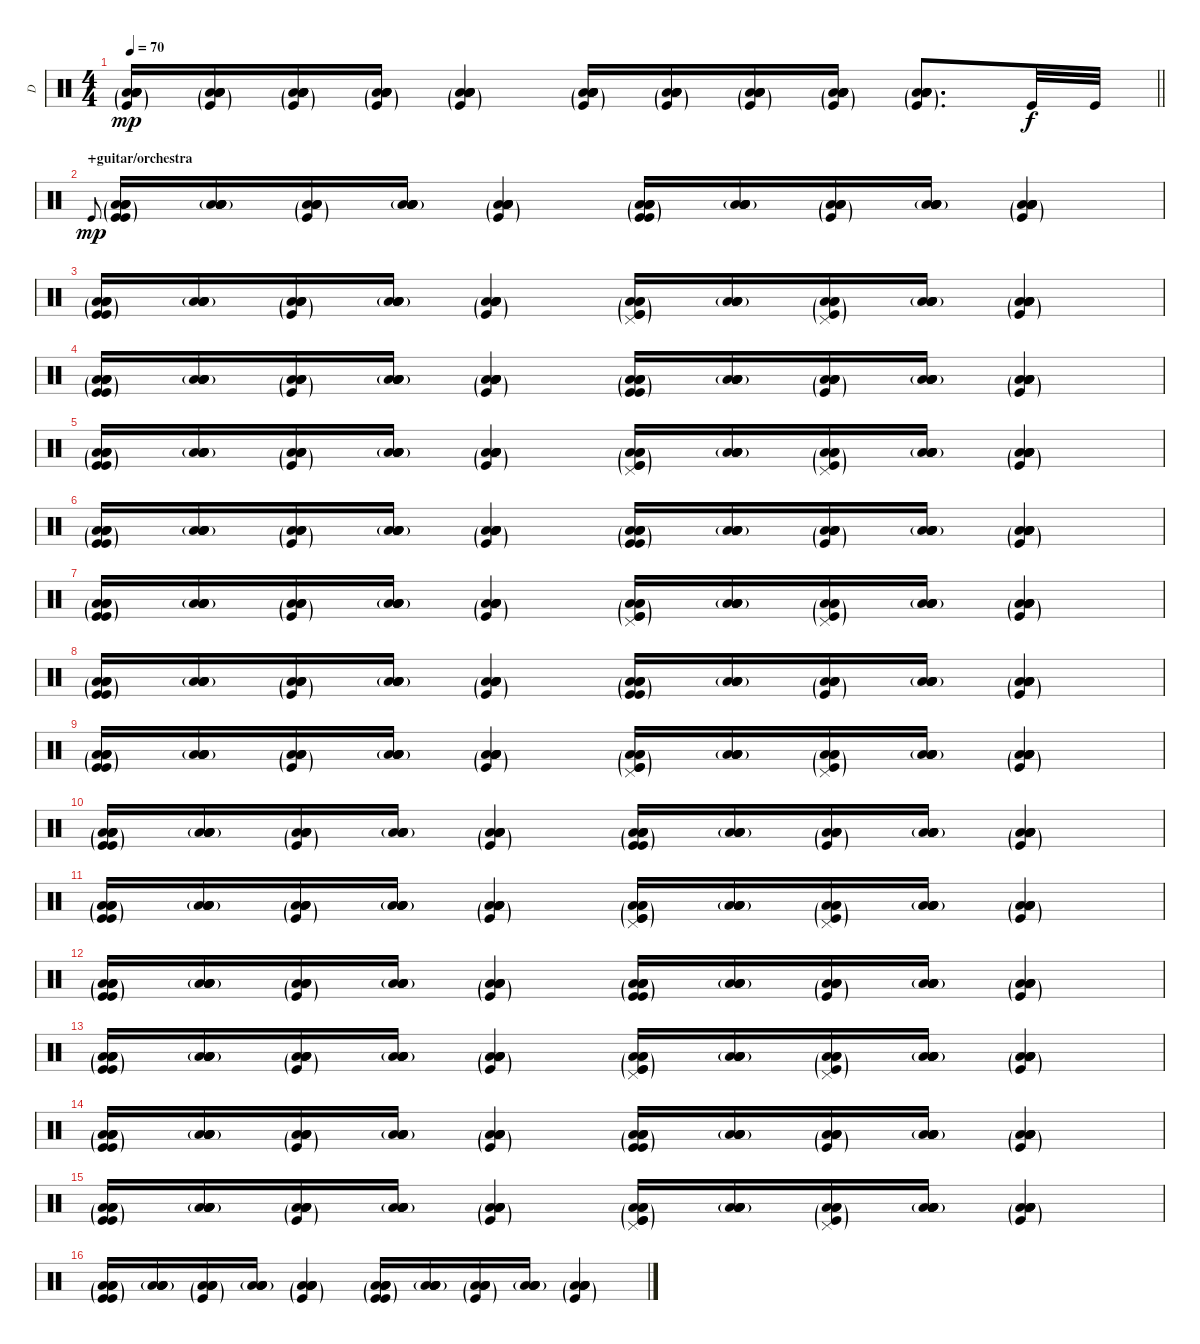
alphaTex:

\track ("D" "D") {instrument percussion}
\staff {score}
\articulation defaults
\ts (4 4)
\tempo 70
\clef neutral
\barLineRight lightlight
\ks c
("Low Floor Tom (hit)"{g} "Low Floor Tom (hit)"{g} "Low Floor Tom (hit)"{g} "Low Floor Tom (hit)"{g} "Low Floor Tom (hit)"{g} "Kick (hit)"{g}).16{dy mp} ("Low Floor Tom (hit)"{g} "Low Floor Tom (hit)"{g} "Low Floor Tom (hit)"{g} "Low Floor Tom (hit)"{g} "Low Floor Tom (hit)"{g} "Kick (hit)"{g}).16 ("Low Floor Tom (hit)"{g} "Low Floor Tom (hit)"{g} "Low Floor Tom (hit)"{g} "Low Floor Tom (hit)"{g} "Low Floor Tom (hit)"{g} "Kick (hit)"{g}).16 ("Low Floor Tom (hit)"{g} "Low Floor Tom (hit)"{g} "Low Floor Tom (hit)"{g} "Low Floor Tom (hit)"{g} "Low Floor Tom (hit)"{g} "Kick (hit)"{g}).16 ("Low Floor Tom (hit)"{g} "Low Floor Tom (hit)"{g} "Low Floor Tom (hit)"{g} "Low Floor Tom (hit)"{g} "Low Floor Tom (hit)"{g} "Kick (hit)"{g}).4 ("Low Floor Tom (hit)"{g} "Low Floor Tom (hit)"{g} "Low Floor Tom (hit)"{g} "Low Floor Tom (hit)"{g} "Low Floor Tom (hit)"{g} "Kick (hit)"{g}).16 ("Low Floor Tom (hit)"{g} "Low Floor Tom (hit)"{g} "Low Floor Tom (hit)"{g} "Low Floor Tom (hit)"{g} "Low Floor Tom (hit)"{g} "Kick (hit)"{g}).16 ("Low Floor Tom (hit)"{g} "Low Floor Tom (hit)"{g} "Low Floor Tom (hit)"{g} "Low Floor Tom (hit)"{g} "Low Floor Tom (hit)"{g} "Kick (hit)"{g}).16 ("Low Floor Tom (hit)"{g} "Low Floor Tom (hit)"{g} "Low Floor Tom (hit)"{g} "Low Floor Tom (hit)"{g} "Low Floor Tom (hit)"{g} "Kick (hit)"{g}).16 ("Low Floor Tom (hit)"{g} "Low Floor Tom (hit)"{g} "Low Floor Tom (hit)"{g} "Low Floor Tom (hit)"{g} "Low Floor Tom (hit)"{g} "Kick (hit)"{g}).8{d} "Kick (hit)".32{dy f} "Kick (hit)".32 |
\section ("" "+guitar/orchestra")
"Kick (hit)".8{gr onbeat dy mp} ("Low Floor Tom (hit)"{g} "Low Floor Tom (hit)"{g} "Low Floor Tom (hit)"{g} "Low Floor Tom (hit)"{g} "Kick (hit)"{g} "Kick (hit)"{g}).16 ("Low Floor Tom (hit)"{g} "Low Floor Tom (hit)"{g} "Low Floor Tom (hit)"{g} "Low Floor Tom (hit)"{g} "Low Floor Tom (hit)"{g}).16 ("Low Floor Tom (hit)"{g} "Low Floor Tom (hit)"{g} "Low Floor Tom (hit)"{g} "Low Floor Tom (hit)"{g} "Kick (hit)"{g}).16 ("Low Floor Tom (hit)"{g} "Low Floor Tom (hit)"{g} "Low Floor Tom (hit)"{g} "Low Floor Tom (hit)"{g} "Low Floor Tom (hit)"{g}).16 ("Low Floor Tom (hit)"{g} "Low Floor Tom (hit)"{g} "Low Floor Tom (hit)"{g} "Low Floor Tom (hit)"{g} "Low Floor Tom (hit)"{g} "Kick (hit)"{g}).4 ("Low Floor Tom (hit)"{g} "Low Floor Tom (hit)"{g} "Low Floor Tom (hit)"{g} "Low Floor Tom (hit)"{g} "Kick (hit)"{g} "Kick (hit)"{g}).16 ("Low Floor Tom (hit)"{g} "Low Floor Tom (hit)"{g} "Low Floor Tom (hit)"{g} "Low Floor Tom (hit)"{g} "Low Floor Tom (hit)"{g}).16 ("Low Floor Tom (hit)"{g} "Low Floor Tom (hit)"{g} "Low Floor Tom (hit)"{g} "Low Floor Tom (hit)"{g} "Kick (hit)"{g}).16 ("Low Floor Tom (hit)"{g} "Low Floor Tom (hit)"{g} "Low Floor Tom (hit)"{g} "Low Floor Tom (hit)"{g} "Low Floor Tom (hit)"{g}).16 ("Low Floor Tom (hit)"{g} "Low Floor Tom (hit)"{g} "Low Floor Tom (hit)"{g} "Low Floor Tom (hit)"{g} "Low Floor Tom (hit)"{g} "Kick (hit)"{g}).4 |
("Low Floor Tom (hit)"{g} "Low Floor Tom (hit)"{g} "Low Floor Tom (hit)"{g} "Low Floor Tom (hit)"{g} "Kick (hit)"{g} "Kick (hit)"{g}).16 ("Low Floor Tom (hit)"{g} "Low Floor Tom (hit)"{g} "Low Floor Tom (hit)"{g} "Low Floor Tom (hit)"{g} "Low Floor Tom (hit)"{g}).16 ("Low Floor Tom (hit)"{g} "Low Floor Tom (hit)"{g} "Low Floor Tom (hit)"{g} "Low Floor Tom (hit)"{g} "Kick (hit)"{g}).16 ("Low Floor Tom (hit)"{g} "Low Floor Tom (hit)"{g} "Low Floor Tom (hit)"{g} "Low Floor Tom (hit)"{g} "Low Floor Tom (hit)"{g}).16 ("Low Floor Tom (hit)"{g} "Low Floor Tom (hit)"{g} "Low Floor Tom (hit)"{g} "Low Floor Tom (hit)"{g} "Low Floor Tom (hit)"{g} "Kick (hit)"{g}).4 ("Pedal Hi-Hat (hit)"{g} "Low Floor Tom (hit)"{g} "Low Floor Tom (hit)"{g} "Low Floor Tom (hit)"{g} "Kick (hit)"{g} "Kick (hit)"{g}).16 ("Low Floor Tom (hit)"{g} "Low Floor Tom (hit)"{g} "Low Floor Tom (hit)"{g} "Low Floor Tom (hit)"{g} "Low Floor Tom (hit)"{g}).16 ("Pedal Hi-Hat (hit)"{g} "Low Floor Tom (hit)"{g} "Low Floor Tom (hit)"{g} "Low Floor Tom (hit)"{g} "Kick (hit)"{g}).16 ("Low Floor Tom (hit)"{g} "Low Floor Tom (hit)"{g} "Low Floor Tom (hit)"{g} "Low Floor Tom (hit)"{g} "Low Floor Tom (hit)"{g}).16 ("Low Floor Tom (hit)"{g} "Low Floor Tom (hit)"{g} "Low Floor Tom (hit)"{g} "Low Floor Tom (hit)"{g} "Low Floor Tom (hit)"{g} "Kick (hit)"{g}).4 |
("Low Floor Tom (hit)"{g} "Low Floor Tom (hit)"{g} "Low Floor Tom (hit)"{g} "Low Floor Tom (hit)"{g} "Kick (hit)"{g} "Kick (hit)"{g}).16 ("Low Floor Tom (hit)"{g} "Low Floor Tom (hit)"{g} "Low Floor Tom (hit)"{g} "Low Floor Tom (hit)"{g} "Low Floor Tom (hit)"{g}).16 ("Low Floor Tom (hit)"{g} "Low Floor Tom (hit)"{g} "Low Floor Tom (hit)"{g} "Low Floor Tom (hit)"{g} "Kick (hit)"{g}).16 ("Low Floor Tom (hit)"{g} "Low Floor Tom (hit)"{g} "Low Floor Tom (hit)"{g} "Low Floor Tom (hit)"{g} "Low Floor Tom (hit)"{g}).16 ("Low Floor Tom (hit)"{g} "Low Floor Tom (hit)"{g} "Low Floor Tom (hit)"{g} "Low Floor Tom (hit)"{g} "Low Floor Tom (hit)"{g} "Kick (hit)"{g}).4 ("Low Floor Tom (hit)"{g} "Low Floor Tom (hit)"{g} "Low Floor Tom (hit)"{g} "Low Floor Tom (hit)"{g} "Kick (hit)"{g} "Kick (hit)"{g}).16 ("Low Floor Tom (hit)"{g} "Low Floor Tom (hit)"{g} "Low Floor Tom (hit)"{g} "Low Floor Tom (hit)"{g} "Low Floor Tom (hit)"{g}).16 ("Low Floor Tom (hit)"{g} "Low Floor Tom (hit)"{g} "Low Floor Tom (hit)"{g} "Low Floor Tom (hit)"{g} "Kick (hit)"{g}).16 ("Low Floor Tom (hit)"{g} "Low Floor Tom (hit)"{g} "Low Floor Tom (hit)"{g} "Low Floor Tom (hit)"{g} "Low Floor Tom (hit)"{g}).16 ("Low Floor Tom (hit)"{g} "Low Floor Tom (hit)"{g} "Low Floor Tom (hit)"{g} "Low Floor Tom (hit)"{g} "Low Floor Tom (hit)"{g} "Kick (hit)"{g}).4 |
("Low Floor Tom (hit)"{g} "Low Floor Tom (hit)"{g} "Low Floor Tom (hit)"{g} "Low Floor Tom (hit)"{g} "Kick (hit)"{g} "Kick (hit)"{g}).16 ("Low Floor Tom (hit)"{g} "Low Floor Tom (hit)"{g} "Low Floor Tom (hit)"{g} "Low Floor Tom (hit)"{g} "Low Floor Tom (hit)"{g}).16 ("Low Floor Tom (hit)"{g} "Low Floor Tom (hit)"{g} "Low Floor Tom (hit)"{g} "Low Floor Tom (hit)"{g} "Kick (hit)"{g}).16 ("Low Floor Tom (hit)"{g} "Low Floor Tom (hit)"{g} "Low Floor Tom (hit)"{g} "Low Floor Tom (hit)"{g} "Low Floor Tom (hit)"{g}).16 ("Low Floor Tom (hit)"{g} "Low Floor Tom (hit)"{g} "Low Floor Tom (hit)"{g} "Low Floor Tom (hit)"{g} "Low Floor Tom (hit)"{g} "Kick (hit)"{g}).4 ("Pedal Hi-Hat (hit)"{g} "Low Floor Tom (hit)"{g} "Low Floor Tom (hit)"{g} "Low Floor Tom (hit)"{g} "Kick (hit)"{g} "Kick (hit)"{g}).16 ("Low Floor Tom (hit)"{g} "Low Floor Tom (hit)"{g} "Low Floor Tom (hit)"{g} "Low Floor Tom (hit)"{g} "Low Floor Tom (hit)"{g}).16 ("Pedal Hi-Hat (hit)"{g} "Low Floor Tom (hit)"{g} "Low Floor Tom (hit)"{g} "Low Floor Tom (hit)"{g} "Kick (hit)"{g}).16 ("Low Floor Tom (hit)"{g} "Low Floor Tom (hit)"{g} "Low Floor Tom (hit)"{g} "Low Floor Tom (hit)"{g} "Low Floor Tom (hit)"{g}).16 ("Low Floor Tom (hit)"{g} "Low Floor Tom (hit)"{g} "Low Floor Tom (hit)"{g} "Low Floor Tom (hit)"{g} "Low Floor Tom (hit)"{g} "Kick (hit)"{g}).4 |
("Low Floor Tom (hit)"{g} "Low Floor Tom (hit)"{g} "Low Floor Tom (hit)"{g} "Low Floor Tom (hit)"{g} "Kick (hit)"{g} "Kick (hit)"{g}).16 ("Low Floor Tom (hit)"{g} "Low Floor Tom (hit)"{g} "Low Floor Tom (hit)"{g} "Low Floor Tom (hit)"{g} "Low Floor Tom (hit)"{g}).16 ("Low Floor Tom (hit)"{g} "Low Floor Tom (hit)"{g} "Low Floor Tom (hit)"{g} "Low Floor Tom (hit)"{g} "Kick (hit)"{g}).16 ("Low Floor Tom (hit)"{g} "Low Floor Tom (hit)"{g} "Low Floor Tom (hit)"{g} "Low Floor Tom (hit)"{g} "Low Floor Tom (hit)"{g}).16 ("Low Floor Tom (hit)"{g} "Low Floor Tom (hit)"{g} "Low Floor Tom (hit)"{g} "Low Floor Tom (hit)"{g} "Low Floor Tom (hit)"{g} "Kick (hit)"{g}).4 ("Low Floor Tom (hit)"{g} "Low Floor Tom (hit)"{g} "Low Floor Tom (hit)"{g} "Low Floor Tom (hit)"{g} "Kick (hit)"{g} "Kick (hit)"{g}).16 ("Low Floor Tom (hit)"{g} "Low Floor Tom (hit)"{g} "Low Floor Tom (hit)"{g} "Low Floor Tom (hit)"{g} "Low Floor Tom (hit)"{g}).16 ("Low Floor Tom (hit)"{g} "Low Floor Tom (hit)"{g} "Low Floor Tom (hit)"{g} "Low Floor Tom (hit)"{g} "Kick (hit)"{g}).16 ("Low Floor Tom (hit)"{g} "Low Floor Tom (hit)"{g} "Low Floor Tom (hit)"{g} "Low Floor Tom (hit)"{g} "Low Floor Tom (hit)"{g}).16 ("Low Floor Tom (hit)"{g} "Low Floor Tom (hit)"{g} "Low Floor Tom (hit)"{g} "Low Floor Tom (hit)"{g} "Low Floor Tom (hit)"{g} "Kick (hit)"{g}).4 |
("Low Floor Tom (hit)"{g} "Low Floor Tom (hit)"{g} "Low Floor Tom (hit)"{g} "Low Floor Tom (hit)"{g} "Kick (hit)"{g} "Kick (hit)"{g}).16 ("Low Floor Tom (hit)"{g} "Low Floor Tom (hit)"{g} "Low Floor Tom (hit)"{g} "Low Floor Tom (hit)"{g} "Low Floor Tom (hit)"{g}).16 ("Low Floor Tom (hit)"{g} "Low Floor Tom (hit)"{g} "Low Floor Tom (hit)"{g} "Low Floor Tom (hit)"{g} "Kick (hit)"{g}).16 ("Low Floor Tom (hit)"{g} "Low Floor Tom (hit)"{g} "Low Floor Tom (hit)"{g} "Low Floor Tom (hit)"{g} "Low Floor Tom (hit)"{g}).16 ("Low Floor Tom (hit)"{g} "Low Floor Tom (hit)"{g} "Low Floor Tom (hit)"{g} "Low Floor Tom (hit)"{g} "Low Floor Tom (hit)"{g} "Kick (hit)"{g}).4 ("Pedal Hi-Hat (hit)"{g} "Low Floor Tom (hit)"{g} "Low Floor Tom (hit)"{g} "Low Floor Tom (hit)"{g} "Kick (hit)"{g} "Kick (hit)"{g}).16 ("Low Floor Tom (hit)"{g} "Low Floor Tom (hit)"{g} "Low Floor Tom (hit)"{g} "Low Floor Tom (hit)"{g} "Low Floor Tom (hit)"{g}).16 ("Pedal Hi-Hat (hit)"{g} "Low Floor Tom (hit)"{g} "Low Floor Tom (hit)"{g} "Low Floor Tom (hit)"{g} "Kick (hit)"{g}).16 ("Low Floor Tom (hit)"{g} "Low Floor Tom (hit)"{g} "Low Floor Tom (hit)"{g} "Low Floor Tom (hit)"{g} "Low Floor Tom (hit)"{g}).16 ("Low Floor Tom (hit)"{g} "Low Floor Tom (hit)"{g} "Low Floor Tom (hit)"{g} "Low Floor Tom (hit)"{g} "Low Floor Tom (hit)"{g} "Kick (hit)"{g}).4 |
("Low Floor Tom (hit)"{g} "Low Floor Tom (hit)"{g} "Low Floor Tom (hit)"{g} "Low Floor Tom (hit)"{g} "Kick (hit)"{g} "Kick (hit)"{g}).16 ("Low Floor Tom (hit)"{g} "Low Floor Tom (hit)"{g} "Low Floor Tom (hit)"{g} "Low Floor Tom (hit)"{g} "Low Floor Tom (hit)"{g}).16 ("Low Floor Tom (hit)"{g} "Low Floor Tom (hit)"{g} "Low Floor Tom (hit)"{g} "Low Floor Tom (hit)"{g} "Kick (hit)"{g}).16 ("Low Floor Tom (hit)"{g} "Low Floor Tom (hit)"{g} "Low Floor Tom (hit)"{g} "Low Floor Tom (hit)"{g} "Low Floor Tom (hit)"{g}).16 ("Low Floor Tom (hit)"{g} "Low Floor Tom (hit)"{g} "Low Floor Tom (hit)"{g} "Low Floor Tom (hit)"{g} "Low Floor Tom (hit)"{g} "Kick (hit)"{g}).4 ("Low Floor Tom (hit)"{g} "Low Floor Tom (hit)"{g} "Low Floor Tom (hit)"{g} "Low Floor Tom (hit)"{g} "Kick (hit)"{g} "Kick (hit)"{g}).16 ("Low Floor Tom (hit)"{g} "Low Floor Tom (hit)"{g} "Low Floor Tom (hit)"{g} "Low Floor Tom (hit)"{g} "Low Floor Tom (hit)"{g}).16 ("Low Floor Tom (hit)"{g} "Low Floor Tom (hit)"{g} "Low Floor Tom (hit)"{g} "Low Floor Tom (hit)"{g} "Kick (hit)"{g}).16 ("Low Floor Tom (hit)"{g} "Low Floor Tom (hit)"{g} "Low Floor Tom (hit)"{g} "Low Floor Tom (hit)"{g} "Low Floor Tom (hit)"{g}).16 ("Low Floor Tom (hit)"{g} "Low Floor Tom (hit)"{g} "Low Floor Tom (hit)"{g} "Low Floor Tom (hit)"{g} "Low Floor Tom (hit)"{g} "Kick (hit)"{g}).4 |
("Low Floor Tom (hit)"{g} "Low Floor Tom (hit)"{g} "Low Floor Tom (hit)"{g} "Low Floor Tom (hit)"{g} "Kick (hit)"{g} "Kick (hit)"{g}).16 ("Low Floor Tom (hit)"{g} "Low Floor Tom (hit)"{g} "Low Floor Tom (hit)"{g} "Low Floor Tom (hit)"{g} "Low Floor Tom (hit)"{g}).16 ("Low Floor Tom (hit)"{g} "Low Floor Tom (hit)"{g} "Low Floor Tom (hit)"{g} "Low Floor Tom (hit)"{g} "Kick (hit)"{g}).16 ("Low Floor Tom (hit)"{g} "Low Floor Tom (hit)"{g} "Low Floor Tom (hit)"{g} "Low Floor Tom (hit)"{g} "Low Floor Tom (hit)"{g}).16 ("Low Floor Tom (hit)"{g} "Low Floor Tom (hit)"{g} "Low Floor Tom (hit)"{g} "Low Floor Tom (hit)"{g} "Low Floor Tom (hit)"{g} "Kick (hit)"{g}).4 ("Pedal Hi-Hat (hit)"{g} "Low Floor Tom (hit)"{g} "Low Floor Tom (hit)"{g} "Low Floor Tom (hit)"{g} "Kick (hit)"{g} "Kick (hit)"{g}).16 ("Low Floor Tom (hit)"{g} "Low Floor Tom (hit)"{g} "Low Floor Tom (hit)"{g} "Low Floor Tom (hit)"{g} "Low Floor Tom (hit)"{g}).16 ("Pedal Hi-Hat (hit)"{g} "Low Floor Tom (hit)"{g} "Low Floor Tom (hit)"{g} "Low Floor Tom (hit)"{g} "Kick (hit)"{g}).16 ("Low Floor Tom (hit)"{g} "Low Floor Tom (hit)"{g} "Low Floor Tom (hit)"{g} "Low Floor Tom (hit)"{g} "Low Floor Tom (hit)"{g}).16 ("Low Floor Tom (hit)"{g} "Low Floor Tom (hit)"{g} "Low Floor Tom (hit)"{g} "Low Floor Tom (hit)"{g} "Low Floor Tom (hit)"{g} "Kick (hit)"{g}).4 |
("Low Floor Tom (hit)"{g} "Low Floor Tom (hit)"{g} "Low Floor Tom (hit)"{g} "Low Floor Tom (hit)"{g} "Kick (hit)"{g} "Kick (hit)"{g}).16 ("Low Floor Tom (hit)"{g} "Low Floor Tom (hit)"{g} "Low Floor Tom (hit)"{g} "Low Floor Tom (hit)"{g} "Low Floor Tom (hit)"{g}).16 ("Low Floor Tom (hit)"{g} "Low Floor Tom (hit)"{g} "Low Floor Tom (hit)"{g} "Low Floor Tom (hit)"{g} "Kick (hit)"{g}).16 ("Low Floor Tom (hit)"{g} "Low Floor Tom (hit)"{g} "Low Floor Tom (hit)"{g} "Low Floor Tom (hit)"{g} "Low Floor Tom (hit)"{g}).16 ("Low Floor Tom (hit)"{g} "Low Floor Tom (hit)"{g} "Low Floor Tom (hit)"{g} "Low Floor Tom (hit)"{g} "Low Floor Tom (hit)"{g} "Kick (hit)"{g}).4 ("Low Floor Tom (hit)"{g} "Low Floor Tom (hit)"{g} "Low Floor Tom (hit)"{g} "Low Floor Tom (hit)"{g} "Kick (hit)"{g} "Kick (hit)"{g}).16 ("Low Floor Tom (hit)"{g} "Low Floor Tom (hit)"{g} "Low Floor Tom (hit)"{g} "Low Floor Tom (hit)"{g} "Low Floor Tom (hit)"{g}).16 ("Low Floor Tom (hit)"{g} "Low Floor Tom (hit)"{g} "Low Floor Tom (hit)"{g} "Low Floor Tom (hit)"{g} "Kick (hit)"{g}).16 ("Low Floor Tom (hit)"{g} "Low Floor Tom (hit)"{g} "Low Floor Tom (hit)"{g} "Low Floor Tom (hit)"{g} "Low Floor Tom (hit)"{g}).16 ("Low Floor Tom (hit)"{g} "Low Floor Tom (hit)"{g} "Low Floor Tom (hit)"{g} "Low Floor Tom (hit)"{g} "Low Floor Tom (hit)"{g} "Kick (hit)"{g}).4 |
("Low Floor Tom (hit)"{g} "Low Floor Tom (hit)"{g} "Low Floor Tom (hit)"{g} "Low Floor Tom (hit)"{g} "Kick (hit)"{g} "Kick (hit)"{g}).16 ("Low Floor Tom (hit)"{g} "Low Floor Tom (hit)"{g} "Low Floor Tom (hit)"{g} "Low Floor Tom (hit)"{g} "Low Floor Tom (hit)"{g}).16 ("Low Floor Tom (hit)"{g} "Low Floor Tom (hit)"{g} "Low Floor Tom (hit)"{g} "Low Floor Tom (hit)"{g} "Kick (hit)"{g}).16 ("Low Floor Tom (hit)"{g} "Low Floor Tom (hit)"{g} "Low Floor Tom (hit)"{g} "Low Floor Tom (hit)"{g} "Low Floor Tom (hit)"{g}).16 ("Low Floor Tom (hit)"{g} "Low Floor Tom (hit)"{g} "Low Floor Tom (hit)"{g} "Low Floor Tom (hit)"{g} "Low Floor Tom (hit)"{g} "Kick (hit)"{g}).4 ("Pedal Hi-Hat (hit)"{g} "Low Floor Tom (hit)"{g} "Low Floor Tom (hit)"{g} "Low Floor Tom (hit)"{g} "Kick (hit)"{g} "Kick (hit)"{g}).16 ("Low Floor Tom (hit)"{g} "Low Floor Tom (hit)"{g} "Low Floor Tom (hit)"{g} "Low Floor Tom (hit)"{g} "Low Floor Tom (hit)"{g}).16 ("Pedal Hi-Hat (hit)"{g} "Low Floor Tom (hit)"{g} "Low Floor Tom (hit)"{g} "Low Floor Tom (hit)"{g} "Kick (hit)"{g}).16 ("Low Floor Tom (hit)"{g} "Low Floor Tom (hit)"{g} "Low Floor Tom (hit)"{g} "Low Floor Tom (hit)"{g} "Low Floor Tom (hit)"{g}).16 ("Low Floor Tom (hit)"{g} "Low Floor Tom (hit)"{g} "Low Floor Tom (hit)"{g} "Low Floor Tom (hit)"{g} "Low Floor Tom (hit)"{g} "Kick (hit)"{g}).4 |
("Low Floor Tom (hit)"{g} "Low Floor Tom (hit)"{g} "Low Floor Tom (hit)"{g} "Low Floor Tom (hit)"{g} "Kick (hit)"{g} "Kick (hit)"{g}).16 ("Low Floor Tom (hit)"{g} "Low Floor Tom (hit)"{g} "Low Floor Tom (hit)"{g} "Low Floor Tom (hit)"{g} "Low Floor Tom (hit)"{g}).16 ("Low Floor Tom (hit)"{g} "Low Floor Tom (hit)"{g} "Low Floor Tom (hit)"{g} "Low Floor Tom (hit)"{g} "Kick (hit)"{g}).16 ("Low Floor Tom (hit)"{g} "Low Floor Tom (hit)"{g} "Low Floor Tom (hit)"{g} "Low Floor Tom (hit)"{g} "Low Floor Tom (hit)"{g}).16 ("Low Floor Tom (hit)"{g} "Low Floor Tom (hit)"{g} "Low Floor Tom (hit)"{g} "Low Floor Tom (hit)"{g} "Low Floor Tom (hit)"{g} "Kick (hit)"{g}).4 ("Low Floor Tom (hit)"{g} "Low Floor Tom (hit)"{g} "Low Floor Tom (hit)"{g} "Low Floor Tom (hit)"{g} "Kick (hit)"{g} "Kick (hit)"{g}).16 ("Low Floor Tom (hit)"{g} "Low Floor Tom (hit)"{g} "Low Floor Tom (hit)"{g} "Low Floor Tom (hit)"{g} "Low Floor Tom (hit)"{g}).16 ("Low Floor Tom (hit)"{g} "Low Floor Tom (hit)"{g} "Low Floor Tom (hit)"{g} "Low Floor Tom (hit)"{g} "Kick (hit)"{g}).16 ("Low Floor Tom (hit)"{g} "Low Floor Tom (hit)"{g} "Low Floor Tom (hit)"{g} "Low Floor Tom (hit)"{g} "Low Floor Tom (hit)"{g}).16 ("Low Floor Tom (hit)"{g} "Low Floor Tom (hit)"{g} "Low Floor Tom (hit)"{g} "Low Floor Tom (hit)"{g} "Low Floor Tom (hit)"{g} "Kick (hit)"{g}).4 |
("Low Floor Tom (hit)"{g} "Low Floor Tom (hit)"{g} "Low Floor Tom (hit)"{g} "Low Floor Tom (hit)"{g} "Kick (hit)"{g} "Kick (hit)"{g}).16 ("Low Floor Tom (hit)"{g} "Low Floor Tom (hit)"{g} "Low Floor Tom (hit)"{g} "Low Floor Tom (hit)"{g} "Low Floor Tom (hit)"{g}).16 ("Low Floor Tom (hit)"{g} "Low Floor Tom (hit)"{g} "Low Floor Tom (hit)"{g} "Low Floor Tom (hit)"{g} "Kick (hit)"{g}).16 ("Low Floor Tom (hit)"{g} "Low Floor Tom (hit)"{g} "Low Floor Tom (hit)"{g} "Low Floor Tom (hit)"{g} "Low Floor Tom (hit)"{g}).16 ("Low Floor Tom (hit)"{g} "Low Floor Tom (hit)"{g} "Low Floor Tom (hit)"{g} "Low Floor Tom (hit)"{g} "Low Floor Tom (hit)"{g} "Kick (hit)"{g}).4 ("Pedal Hi-Hat (hit)"{g} "Low Floor Tom (hit)"{g} "Low Floor Tom (hit)"{g} "Low Floor Tom (hit)"{g} "Kick (hit)"{g} "Kick (hit)"{g}).16 ("Low Floor Tom (hit)"{g} "Low Floor Tom (hit)"{g} "Low Floor Tom (hit)"{g} "Low Floor Tom (hit)"{g} "Low Floor Tom (hit)"{g}).16 ("Pedal Hi-Hat (hit)"{g} "Low Floor Tom (hit)"{g} "Low Floor Tom (hit)"{g} "Low Floor Tom (hit)"{g} "Kick (hit)"{g}).16 ("Low Floor Tom (hit)"{g} "Low Floor Tom (hit)"{g} "Low Floor Tom (hit)"{g} "Low Floor Tom (hit)"{g} "Low Floor Tom (hit)"{g}).16 ("Low Floor Tom (hit)"{g} "Low Floor Tom (hit)"{g} "Low Floor Tom (hit)"{g} "Low Floor Tom (hit)"{g} "Low Floor Tom (hit)"{g} "Kick (hit)"{g}).4 |
("Low Floor Tom (hit)"{g} "Low Floor Tom (hit)"{g} "Low Floor Tom (hit)"{g} "Low Floor Tom (hit)"{g} "Kick (hit)"{g} "Kick (hit)"{g}).16 ("Low Floor Tom (hit)"{g} "Low Floor Tom (hit)"{g} "Low Floor Tom (hit)"{g} "Low Floor Tom (hit)"{g} "Low Floor Tom (hit)"{g}).16 ("Low Floor Tom (hit)"{g} "Low Floor Tom (hit)"{g} "Low Floor Tom (hit)"{g} "Low Floor Tom (hit)"{g} "Kick (hit)"{g}).16 ("Low Floor Tom (hit)"{g} "Low Floor Tom (hit)"{g} "Low Floor Tom (hit)"{g} "Low Floor Tom (hit)"{g} "Low Floor Tom (hit)"{g}).16 ("Low Floor Tom (hit)"{g} "Low Floor Tom (hit)"{g} "Low Floor Tom (hit)"{g} "Low Floor Tom (hit)"{g} "Low Floor Tom (hit)"{g} "Kick (hit)"{g}).4 ("Low Floor Tom (hit)"{g} "Low Floor Tom (hit)"{g} "Low Floor Tom (hit)"{g} "Low Floor Tom (hit)"{g} "Kick (hit)"{g} "Kick (hit)"{g}).16 ("Low Floor Tom (hit)"{g} "Low Floor Tom (hit)"{g} "Low Floor Tom (hit)"{g} "Low Floor Tom (hit)"{g} "Low Floor Tom (hit)"{g}).16 ("Low Floor Tom (hit)"{g} "Low Floor Tom (hit)"{g} "Low Floor Tom (hit)"{g} "Low Floor Tom (hit)"{g} "Kick (hit)"{g}).16 ("Low Floor Tom (hit)"{g} "Low Floor Tom (hit)"{g} "Low Floor Tom (hit)"{g} "Low Floor Tom (hit)"{g} "Low Floor Tom (hit)"{g}).16 ("Low Floor Tom (hit)"{g} "Low Floor Tom (hit)"{g} "Low Floor Tom (hit)"{g} "Low Floor Tom (hit)"{g} "Low Floor Tom (hit)"{g} "Kick (hit)"{g}).4 |
("Low Floor Tom (hit)"{g} "Low Floor Tom (hit)"{g} "Low Floor Tom (hit)"{g} "Low Floor Tom (hit)"{g} "Kick (hit)"{g} "Kick (hit)"{g}).16 ("Low Floor Tom (hit)"{g} "Low Floor Tom (hit)"{g} "Low Floor Tom (hit)"{g} "Low Floor Tom (hit)"{g} "Low Floor Tom (hit)"{g}).16 ("Low Floor Tom (hit)"{g} "Low Floor Tom (hit)"{g} "Low Floor Tom (hit)"{g} "Low Floor Tom (hit)"{g} "Kick (hit)"{g}).16 ("Low Floor Tom (hit)"{g} "Low Floor Tom (hit)"{g} "Low Floor Tom (hit)"{g} "Low Floor Tom (hit)"{g} "Low Floor Tom (hit)"{g}).16 ("Low Floor Tom (hit)"{g} "Low Floor Tom (hit)"{g} "Low Floor Tom (hit)"{g} "Low Floor Tom (hit)"{g} "Low Floor Tom (hit)"{g} "Kick (hit)"{g}).4 ("Pedal Hi-Hat (hit)"{g} "Low Floor Tom (hit)"{g} "Low Floor Tom (hit)"{g} "Low Floor Tom (hit)"{g} "Kick (hit)"{g} "Kick (hit)"{g}).16 ("Low Floor Tom (hit)"{g} "Low Floor Tom (hit)"{g} "Low Floor Tom (hit)"{g} "Low Floor Tom (hit)"{g} "Low Floor Tom (hit)"{g}).16 ("Pedal Hi-Hat (hit)"{g} "Low Floor Tom (hit)"{g} "Low Floor Tom (hit)"{g} "Low Floor Tom (hit)"{g} "Kick (hit)"{g}).16 ("Low Floor Tom (hit)"{g} "Low Floor Tom (hit)"{g} "Low Floor Tom (hit)"{g} "Low Floor Tom (hit)"{g} "Low Floor Tom (hit)"{g}).16 ("Low Floor Tom (hit)"{g} "Low Floor Tom (hit)"{g} "Low Floor Tom (hit)"{g} "Low Floor Tom (hit)"{g} "Low Floor Tom (hit)"{g} "Kick (hit)"{g}).4 |
("Low Floor Tom (hit)"{g} "Low Floor Tom (hit)"{g} "Low Floor Tom (hit)"{g} "Low Floor Tom (hit)"{g} "Kick (hit)"{g} "Kick (hit)"{g}).16 ("Low Floor Tom (hit)"{g} "Low Floor Tom (hit)"{g} "Low Floor Tom (hit)"{g} "Low Floor Tom (hit)"{g} "Low Floor Tom (hit)"{g}).16 ("Low Floor Tom (hit)"{g} "Low Floor Tom (hit)"{g} "Low Floor Tom (hit)"{g} "Low Floor Tom (hit)"{g} "Kick (hit)"{g}).16 ("Low Floor Tom (hit)"{g} "Low Floor Tom (hit)"{g} "Low Floor Tom (hit)"{g} "Low Floor Tom (hit)"{g} "Low Floor Tom (hit)"{g}).16 ("Low Floor Tom (hit)"{g} "Low Floor Tom (hit)"{g} "Low Floor Tom (hit)"{g} "Low Floor Tom (hit)"{g} "Low Floor Tom (hit)"{g} "Kick (hit)"{g}).4 ("Low Floor Tom (hit)"{g} "Low Floor Tom (hit)"{g} "Low Floor Tom (hit)"{g} "Low Floor Tom (hit)"{g} "Kick (hit)"{g} "Kick (hit)"{g}).16 ("Low Floor Tom (hit)"{g} "Low Floor Tom (hit)"{g} "Low Floor Tom (hit)"{g} "Low Floor Tom (hit)"{g} "Low Floor Tom (hit)"{g}).16 ("Low Floor Tom (hit)"{g} "Low Floor Tom (hit)"{g} "Low Floor Tom (hit)"{g} "Low Floor Tom (hit)"{g} "Kick (hit)"{g}).16 ("Low Floor Tom (hit)"{g} "Low Floor Tom (hit)"{g} "Low Floor Tom (hit)"{g} "Low Floor Tom (hit)"{g} "Low Floor Tom (hit)"{g}).16 ("Low Floor Tom (hit)"{g} "Low Floor Tom (hit)"{g} "Low Floor Tom (hit)"{g} "Low Floor Tom (hit)"{g} "Low Floor Tom (hit)"{g} "Kick (hit)"{g}).4
